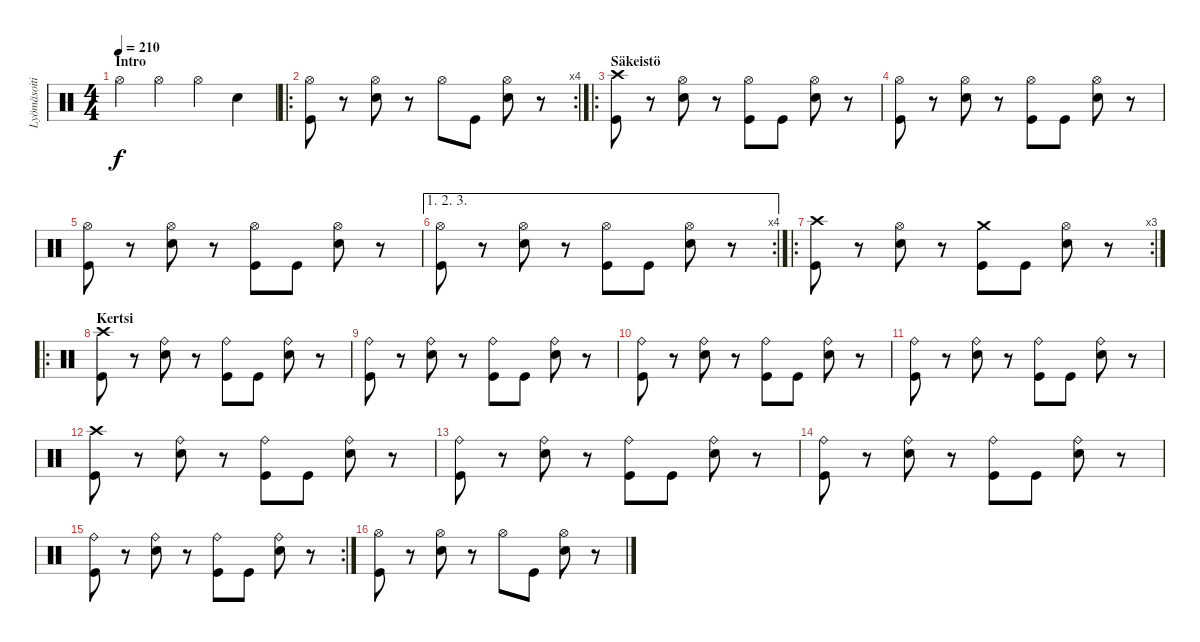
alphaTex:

\track ("Lyömäsoitin" "Lyömäsoiti") {instrument percussion}
\staff {score}
\articulation defaults
\ts (4 4)
\section ("" "Intro")
\tempo 210
\clef neutral
\ks c "Hi-Hat (open)".4{dy f} "Hi-Hat (open)".4 "Hi-Hat (open)".4 "Snare (hit) 2".4
|
\ro
\rc 4
("Hi-Hat (open)" "Kick (hit)").8 r.8 ("Hi-Hat (open)" "Snare (hit) 2").8 r.8 "Hi-Hat (open)".8 "Kick (hit)".8 ("Hi-Hat (open)" "Snare (hit) 2").8 r.8 |
\ro
\section ("" "Säkeistö")
("Crash high (hit)" "Kick (hit)").8 r.8 ("Hi-Hat (open)" "Snare (hit) 2").8 r.8 ("Hi-Hat (open)" "Kick (hit)").8 "Kick (hit)".8 ("Hi-Hat (open)" "Snare (hit) 2").8 r.8 |
("Hi-Hat (open)" "Kick (hit)").8 r.8 ("Hi-Hat (open)" "Snare (hit) 2").8 r.8 ("Hi-Hat (open)" "Kick (hit)").8 "Kick (hit)".8 ("Hi-Hat (open)" "Snare (hit) 2").8 r.8 |
("Hi-Hat (open)" "Kick (hit)").8 r.8 ("Hi-Hat (open)" "Snare (hit) 2").8 r.8 ("Hi-Hat (open)" "Kick (hit)").8 "Kick (hit)".8 ("Hi-Hat (open)" "Snare (hit) 2").8 r.8 |
\ae (1 2 3)
\rc 4
("Hi-Hat (open)" "Kick (hit)").8 r.8 ("Hi-Hat (open)" "Snare (hit) 2").8 r.8 ("Hi-Hat (open)" "Kick (hit)").8 "Kick (hit)".8 ("Hi-Hat (open)" "Snare (hit) 2").8 r.8 |
\ro
\rc 3
("Crash high (hit)" "Kick (hit)").8 r.8 ("Hi-Hat (open)" "Snare (hit) 2").8 r.8 ("Crash medium (hit)" "Kick (hit)").8 "Kick (hit)".8 ("Hi-Hat (open)" "Snare (hit) 2").8 r.8 |
\ro
\section ("" "Kertsi")
("Crash high (hit)" "Kick (hit)").8 r.8 ("Ride (bell)" "Snare (hit) 2").8 r.8 ("Ride (bell)" "Kick (hit)").8 "Kick (hit)".8 ("Ride (bell)" "Snare (hit) 2").8 r.8 |
("Ride (bell)" "Kick (hit)").8 r.8 ("Ride (bell)" "Snare (hit) 2").8 r.8 ("Ride (bell)" "Kick (hit)").8 "Kick (hit)".8 ("Ride (bell)" "Snare (hit) 2").8 r.8 |
("Ride (bell)" "Kick (hit)").8 r.8 ("Ride (bell)" "Snare (hit) 2").8 r.8 ("Ride (bell)" "Kick (hit)").8 "Kick (hit)".8 ("Ride (bell)" "Snare (hit) 2").8 r.8 |
("Ride (bell)" "Kick (hit)").8 r.8 ("Ride (bell)" "Snare (hit) 2").8 r.8 ("Ride (bell)" "Kick (hit)").8 "Kick (hit)".8 ("Ride (bell)" "Snare (hit) 2").8 r.8 |
("Crash high (hit)" "Kick (hit)").8 r.8 ("Ride (bell)" "Snare (hit) 2").8 r.8 ("Ride (bell)" "Kick (hit)").8 "Kick (hit)".8 ("Ride (bell)" "Snare (hit) 2").8 r.8 |
("Ride (bell)" "Kick (hit)").8 r.8 ("Ride (bell)" "Snare (hit) 2").8 r.8 ("Ride (bell)" "Kick (hit)").8 "Kick (hit)".8 ("Ride (bell)" "Snare (hit) 2").8 r.8 |
("Ride (bell)" "Kick (hit)").8 r.8 ("Ride (bell)" "Snare (hit) 2").8 r.8 ("Ride (bell)" "Kick (hit)").8 "Kick (hit)".8 ("Ride (bell)" "Snare (hit) 2").8 r.8 |
\rc 2
("Ride (bell)" "Kick (hit)").8 r.8 ("Ride (bell)" "Snare (hit) 2").8 r.8 ("Ride (bell)" "Kick (hit)").8 "Kick (hit)".8 ("Ride (bell)" "Snare (hit) 2").8 r.8 |
("Hi-Hat (open)" "Kick (hit)").8 r.8 ("Hi-Hat (open)" "Snare (hit) 2").8 r.8 "Hi-Hat (open)".8 "Kick (hit)".8 ("Hi-Hat (open)" "Snare (hit) 2").8 r.8
